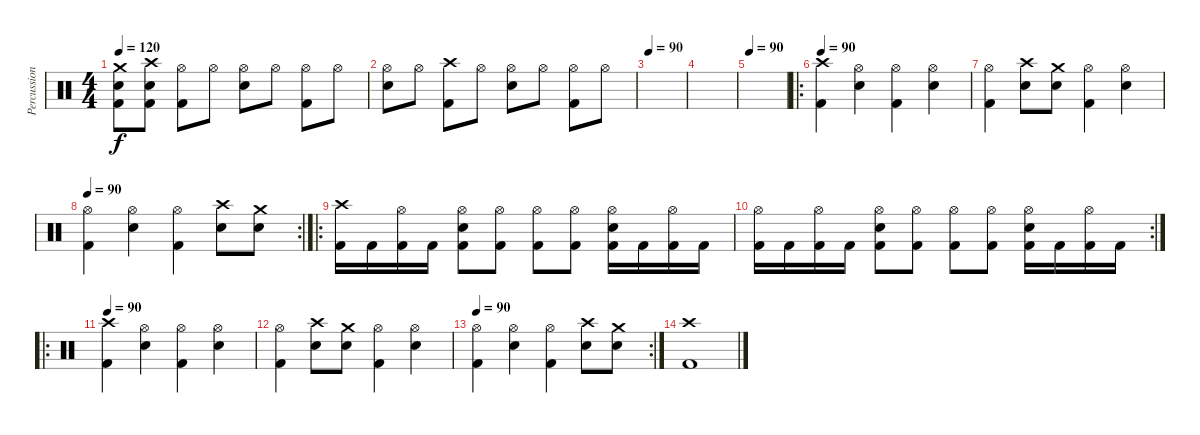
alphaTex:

\track ("Percussion" "Percussion") {instrument percussion}
\staff {score}
\articulation defaults
\ts (4 4)
\tempo 120
\clef neutral
\ks c
("Crash medium (hit)" "Snare (hit) 2" "Kick (hit) 2").8{dy f} ("Crash high (hit)" "Snare (hit) 2" "Kick (hit) 2").8 ("Hi-Hat (open)" "Kick (hit) 2").8 "Hi-Hat (open)".8 ("Hi-Hat (open)" "Snare (hit) 2").8 "Hi-Hat (open)".8 ("Hi-Hat (open)" "Kick (hit) 2").8 "Hi-Hat (open)".8 |
("Hi-Hat (open)" "Snare (hit) 2").8 "Hi-Hat (open)".8 ("Crash high (hit)" "Kick (hit) 2").8 "Hi-Hat (open)".8 ("Hi-Hat (open)" "Snare (hit) 2").8 "Hi-Hat (open)".8 ("Hi-Hat (open)" "Kick (hit) 2").8 "Hi-Hat (open)".8 |
\tempo 90
|
|
\tempo 90
|
\ro
\tempo 90
("Crash high (hit)" "Kick (hit) 2").4 ("Hi-Hat (open)" "Snare (hit) 2").4 ("Hi-Hat (open)" "Kick (hit) 2").4 ("Hi-Hat (open)" "Snare (hit) 2").4 |
("Hi-Hat (open)" "Kick (hit) 2").4 ("Crash high (hit)" "Snare (hit) 2").8 ("Crash medium (hit)" "Snare (hit) 2").8 ("Hi-Hat (open)" "Kick (hit) 2").4 ("Hi-Hat (open)" "Snare (hit) 2").4 |
\rc 2
\tempo 90
("Hi-Hat (open)" "Kick (hit) 2").4 ("Hi-Hat (open)" "Snare (hit) 2").4 ("Hi-Hat (open)" "Kick (hit) 2").4 ("Crash high (hit)" "Snare (hit) 2").8 ("Crash medium (hit)" "Snare (hit) 2").8 |
\ro
("Crash high (hit)" "Kick (hit) 2").16 "Kick (hit) 2".16 ("Hi-Hat (open)" "Kick (hit) 2").16 "Kick (hit) 2".16 ("Hi-Hat (open)" "Snare (hit) 2" "Kick (hit) 2").8 ("Hi-Hat (open)" "Kick (hit) 2").8 ("Hi-Hat (open)" "Kick (hit) 2").8 ("Hi-Hat (open)" "Kick (hit) 2").8 ("Hi-Hat (open)" "Snare (hit) 2" "Kick (hit) 2").16 "Kick (hit) 2".16 ("Hi-Hat (open)" "Kick (hit) 2").16 "Kick (hit) 2".16 |
\rc 2
("Hi-Hat (open)" "Kick (hit) 2").16 "Kick (hit) 2".16 ("Hi-Hat (open)" "Kick (hit) 2").16 "Kick (hit) 2".16 ("Hi-Hat (open)" "Snare (hit) 2" "Kick (hit) 2").8 ("Hi-Hat (open)" "Kick (hit) 2").8 ("Hi-Hat (open)" "Kick (hit) 2").8 ("Hi-Hat (open)" "Kick (hit) 2").8 ("Hi-Hat (open)" "Snare (hit) 2" "Kick (hit) 2").16 "Kick (hit) 2".16 ("Hi-Hat (open)" "Kick (hit) 2").16 "Kick (hit) 2".16 |
\ro
\tempo 90
("Crash high (hit)" "Kick (hit) 2").4 ("Hi-Hat (open)" "Snare (hit) 2").4 ("Hi-Hat (open)" "Kick (hit) 2").4 ("Hi-Hat (open)" "Snare (hit) 2").4 |
("Hi-Hat (open)" "Kick (hit) 2").4 ("Crash high (hit)" "Snare (hit) 2").8 ("Crash medium (hit)" "Snare (hit) 2").8 ("Hi-Hat (open)" "Kick (hit) 2").4 ("Hi-Hat (open)" "Snare (hit) 2").4 |
\rc 2
\tempo 90
("Hi-Hat (open)" "Kick (hit) 2").4 ("Hi-Hat (open)" "Snare (hit) 2").4 ("Hi-Hat (open)" "Kick (hit) 2").4 ("Crash high (hit)" "Snare (hit) 2").8 ("Crash medium (hit)" "Snare (hit) 2").8 |
("Crash high (hit)" "Kick (hit) 2").1
